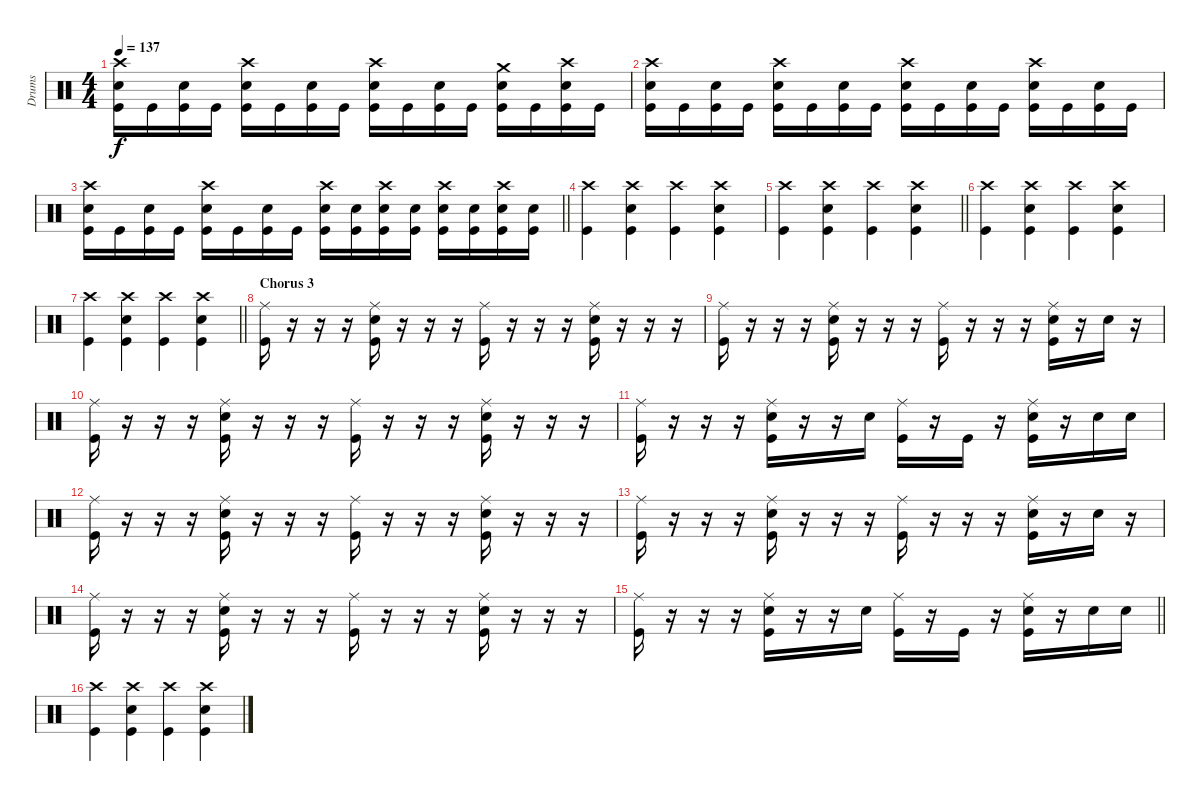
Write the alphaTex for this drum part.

\track ("Drums" "Drums") {instrument percussion}
\staff {score}
\articulation defaults
\ts (4 4)
\tempo 137
\clef neutral
\ks c
("Crash high (hit)" "Snare (hit) 2" "Kick (hit)").16{dy f} "Kick (hit)".16 ("Snare (hit) 2" "Kick (hit)").16 "Kick (hit)".16 ("Crash high (hit)" "Snare (hit) 2" "Kick (hit)").16 "Kick (hit)".16 ("Snare (hit) 2" "Kick (hit)").16 "Kick (hit)".16 ("Crash high (hit)" "Snare (hit) 2" "Kick (hit)").16 "Kick (hit)".16 ("Snare (hit) 2" "Kick (hit)").16 "Kick (hit)".16 ("Crash medium (hit)" "Snare (hit) 2" "Kick (hit)").16 "Kick (hit)".16 ("Crash high (hit)" "Snare (hit) 2" "Kick (hit)").16 "Kick (hit)".16 |
("Crash high (hit)" "Snare (hit) 2" "Kick (hit)").16 "Kick (hit)".16 ("Snare (hit) 2" "Kick (hit)").16 "Kick (hit)".16 ("Crash high (hit)" "Snare (hit) 2" "Kick (hit)").16 "Kick (hit)".16 ("Snare (hit) 2" "Kick (hit)").16 "Kick (hit)".16 ("Crash high (hit)" "Snare (hit) 2" "Kick (hit)").16 "Kick (hit)".16 ("Snare (hit) 2" "Kick (hit)").16 "Kick (hit)".16 ("Crash high (hit)" "Snare (hit) 2" "Kick (hit)").16 "Kick (hit)".16 ("Snare (hit) 2" "Kick (hit)").16 "Kick (hit)".16 |
\barLineRight lightlight
("Crash high (hit)" "Snare (hit) 2" "Kick (hit)").16 "Kick (hit)".16 ("Snare (hit) 2" "Kick (hit)").16 "Kick (hit)".16 ("Crash high (hit)" "Snare (hit) 2" "Kick (hit)").16 "Kick (hit)".16 ("Snare (hit) 2" "Kick (hit)").16 "Kick (hit)".16 ("Crash high (hit)" "Snare (hit) 2" "Kick (hit)").16 ("Snare (hit) 2" "Kick (hit)").16 ("Crash high (hit)" "Snare (hit) 2" "Kick (hit)").16 ("Snare (hit) 2" "Kick (hit)").16 ("Crash high (hit)" "Snare (hit) 2" "Kick (hit)").16 ("Snare (hit) 2" "Kick (hit)").16 ("Crash high (hit)" "Snare (hit) 2" "Kick (hit)").16 ("Snare (hit) 2" "Kick (hit)").16 |
("Crash high (hit)" "Kick (hit)").4 ("Crash high (hit)" "Snare (hit) 2" "Kick (hit)").4 ("Crash high (hit)" "Kick (hit)").4 ("Crash high (hit)" "Snare (hit) 2" "Kick (hit)").4 |
\barLineRight lightlight
("Crash high (hit)" "Kick (hit)").4 ("Crash high (hit)" "Snare (hit) 2" "Kick (hit)").4 ("Crash high (hit)" "Kick (hit)").4 ("Crash high (hit)" "Snare (hit) 2" "Kick (hit)").4 |
("Crash high (hit)" "Kick (hit)").4 ("Crash high (hit)" "Snare (hit) 2" "Kick (hit)").4 ("Crash high (hit)" "Kick (hit)").4 ("Crash high (hit)" "Snare (hit) 2" "Kick (hit)").4 |
\barLineRight lightlight
("Crash high (hit)" "Kick (hit)").4 ("Crash high (hit)" "Snare (hit) 2" "Kick (hit)").4 ("Crash high (hit)" "Kick (hit)").4 ("Crash high (hit)" "Snare (hit) 2" "Kick (hit)").4 |
\section ("" "Chorus 3")
("Ride (middle)" "Kick (hit)").16{volume 8} r.16 r.16 r.16 ("Ride (middle)" "Snare (hit) 2" "Kick (hit)").16 r.16 r.16 r.16 ("Ride (middle)" "Kick (hit)").16 r.16 r.16 r.16 ("Ride (middle)" "Snare (hit) 2" "Kick (hit)").16 r.16 r.16 r.16 |
("Ride (middle)" "Kick (hit)").16 r.16 r.16 r.16 ("Ride (middle)" "Snare (hit) 2" "Kick (hit)").16 r.16 r.16 r.16 ("Ride (middle)" "Kick (hit)").16 r.16 r.16 r.16 ("Ride (middle)" "Snare (hit) 2" "Kick (hit)").16 r.16 "Snare (hit) 2".16 r.16 |
("Ride (middle)" "Kick (hit)").16 r.16 r.16 r.16 ("Ride (middle)" "Snare (hit) 2" "Kick (hit)").16 r.16 r.16 r.16 ("Ride (middle)" "Kick (hit)").16 r.16 r.16 r.16 ("Ride (middle)" "Snare (hit) 2" "Kick (hit)").16 r.16 r.16 r.16 |
("Ride (middle)" "Kick (hit)").16 r.16 r.16 r.16 ("Ride (middle)" "Snare (hit) 2" "Kick (hit)").16 r.16 r.16 "Snare (hit) 2".16 ("Ride (middle)" "Kick (hit)").16 r.16 "Kick (hit)".16 r.16 ("Ride (middle)" "Snare (hit) 2" "Kick (hit)").16 r.16 "Snare (hit) 2".16 "Snare (hit) 2".16 |
("Ride (middle)" "Kick (hit)").16 r.16 r.16 r.16 ("Ride (middle)" "Snare (hit) 2" "Kick (hit)").16 r.16 r.16 r.16 ("Ride (middle)" "Kick (hit)").16 r.16 r.16 r.16 ("Ride (middle)" "Snare (hit) 2" "Kick (hit)").16 r.16 r.16 r.16 |
("Ride (middle)" "Kick (hit)").16 r.16 r.16 r.16 ("Ride (middle)" "Snare (hit) 2" "Kick (hit)").16 r.16 r.16 r.16 ("Ride (middle)" "Kick (hit)").16 r.16 r.16 r.16 ("Ride (middle)" "Snare (hit) 2" "Kick (hit)").16 r.16 "Snare (hit) 2".16 r.16 |
("Ride (middle)" "Kick (hit)").16 r.16 r.16 r.16 ("Ride (middle)" "Snare (hit) 2" "Kick (hit)").16 r.16 r.16 r.16 ("Ride (middle)" "Kick (hit)").16 r.16 r.16 r.16 ("Ride (middle)" "Snare (hit) 2" "Kick (hit)").16 r.16 r.16 r.16 |
\barLineRight lightlight
("Ride (middle)" "Kick (hit)").16 r.16 r.16 r.16 ("Ride (middle)" "Snare (hit) 2" "Kick (hit)").16 r.16 r.16 "Snare (hit) 2".16 ("Ride (middle)" "Kick (hit)").16 r.16 "Kick (hit)".16 r.16 ("Ride (middle)" "Snare (hit) 2" "Kick (hit)").16 r.16 "Snare (hit) 2".16 "Snare (hit) 2".16 |
("Crash high (hit)" "Kick (hit)").4 ("Crash high (hit)" "Snare (hit) 2" "Kick (hit)").4 ("Crash high (hit)" "Kick (hit)").4 ("Crash high (hit)" "Snare (hit) 2" "Kick (hit)").4
